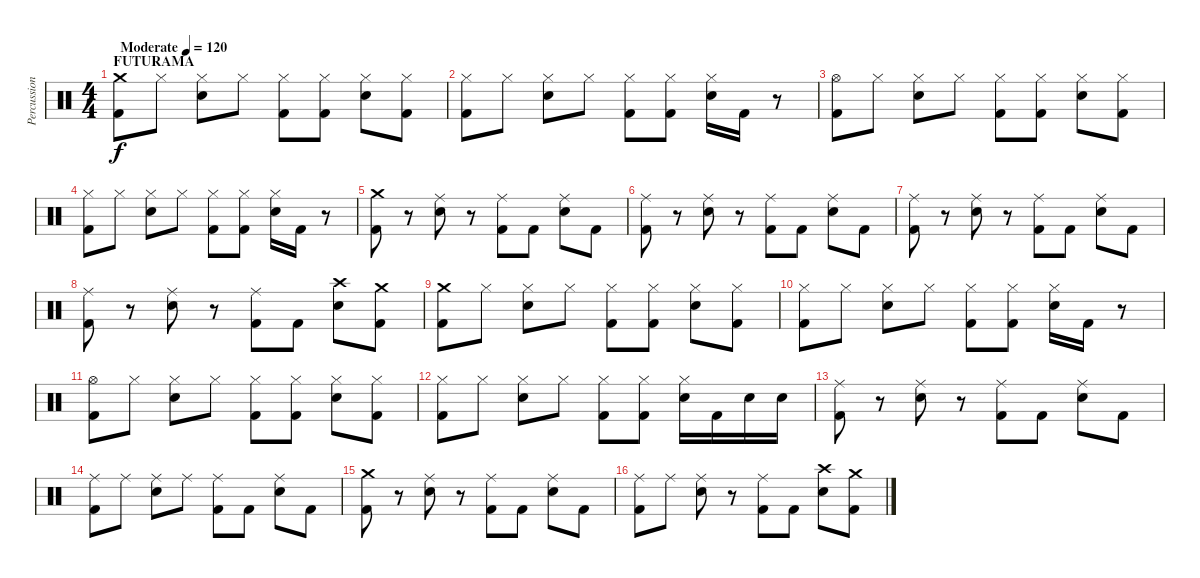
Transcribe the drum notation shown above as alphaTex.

\track ("Percussion" "Percussion") {instrument percussion}
\staff {score}
\articulation defaults
\ts (4 4)
\section ("" "FUTURAMA")
\tempo (120 "Moderate")
\clef neutral
\ks c
("Crash medium (hit)" "Kick (hit) 2").8{dy f} "Hi-Hat (closed)".8 ("Hi-Hat (closed)" "Electric Snare (hit)").8 "Hi-Hat (closed)".8 ("Hi-Hat (closed)" "Kick (hit) 2").8 ("Hi-Hat (closed)" "Kick (hit) 2").8 ("Hi-Hat (closed)" "Electric Snare (hit)").8 ("Hi-Hat (closed)" "Kick (hit) 2").8 |
("Hi-Hat (closed)" "Kick (hit) 2").8 "Hi-Hat (closed)".8 ("Hi-Hat (closed)" "Electric Snare (hit)").8 "Hi-Hat (closed)".8 ("Hi-Hat (closed)" "Kick (hit) 2").8 ("Hi-Hat (closed)" "Kick (hit) 2").8 ("Hi-Hat (closed)" "Electric Snare (hit)").16 "Kick (hit) 2".16 r.8 |
("Hi-Hat (open)" "Kick (hit) 2").8 "Hi-Hat (closed)".8 ("Hi-Hat (closed)" "Electric Snare (hit)").8 "Hi-Hat (closed)".8 ("Hi-Hat (closed)" "Kick (hit) 2").8 ("Hi-Hat (closed)" "Kick (hit) 2").8 ("Hi-Hat (closed)" "Electric Snare (hit)").8 ("Hi-Hat (closed)" "Kick (hit) 2").8 |
("Hi-Hat (closed)" "Kick (hit) 2").8 "Hi-Hat (closed)".8 ("Hi-Hat (closed)" "Electric Snare (hit)").8 "Hi-Hat (closed)".8 ("Hi-Hat (closed)" "Kick (hit) 2").8 ("Hi-Hat (closed)" "Kick (hit) 2").8 ("Hi-Hat (closed)" "Electric Snare (hit)").16 "Kick (hit) 2".16 r.8 |
("Crash medium (hit)" "Kick (hit) 2").8 r.8 ("Ride (middle)" "Electric Snare (hit)").8 r.8 ("Ride (middle)" "Kick (hit) 2").8 "Kick (hit) 2".8 ("Ride (middle)" "Electric Snare (hit)").8 "Kick (hit) 2".8 |
("Ride (middle)" "Kick (hit) 2").8 r.8 ("Ride (middle)" "Electric Snare (hit)").8 r.8 ("Ride (middle)" "Kick (hit) 2").8 "Kick (hit) 2".8 ("Ride (middle)" "Electric Snare (hit)").8 "Kick (hit) 2".8 |
("Ride (middle)" "Kick (hit) 2").8 r.8 ("Ride (middle)" "Electric Snare (hit)").8 r.8 ("Ride (middle)" "Kick (hit) 2").8 "Kick (hit) 2".8 ("Ride (middle)" "Electric Snare (hit)").8 "Kick (hit) 2".8 |
("Ride (middle)" "Kick (hit) 2").8 r.8 ("Ride (middle)" "Electric Snare (hit)").8 r.8 ("Ride (middle)" "Kick (hit) 2").8 "Kick (hit) 2".8 ("Crash high (hit)" "Electric Snare (hit)").8 ("Crash medium (hit)" "Kick (hit) 2").8 |
("Crash medium (hit)" "Kick (hit) 2").8 "Hi-Hat (closed)".8 ("Hi-Hat (closed)" "Electric Snare (hit)").8 "Hi-Hat (closed)".8 ("Hi-Hat (closed)" "Kick (hit) 2").8 ("Hi-Hat (closed)" "Kick (hit) 2").8 ("Hi-Hat (closed)" "Electric Snare (hit)").8 ("Hi-Hat (closed)" "Kick (hit) 2").8 |
("Hi-Hat (closed)" "Kick (hit) 2").8 "Hi-Hat (closed)".8 ("Hi-Hat (closed)" "Electric Snare (hit)").8 "Hi-Hat (closed)".8 ("Hi-Hat (closed)" "Kick (hit) 2").8 ("Hi-Hat (closed)" "Kick (hit) 2").8 ("Hi-Hat (closed)" "Electric Snare (hit)").16 "Kick (hit) 2".16 r.8 |
("Hi-Hat (open)" "Kick (hit) 2").8 "Hi-Hat (closed)".8 ("Hi-Hat (closed)" "Electric Snare (hit)").8 "Hi-Hat (closed)".8 ("Hi-Hat (closed)" "Kick (hit) 2").8 ("Hi-Hat (closed)" "Kick (hit) 2").8 ("Hi-Hat (closed)" "Electric Snare (hit)").8 ("Hi-Hat (closed)" "Kick (hit) 2").8 |
("Hi-Hat (closed)" "Kick (hit) 2").8 "Hi-Hat (closed)".8 ("Hi-Hat (closed)" "Electric Snare (hit)").8 "Hi-Hat (closed)".8 ("Hi-Hat (closed)" "Kick (hit) 2").8 ("Hi-Hat (closed)" "Kick (hit) 2").8 ("Hi-Hat (closed)" "Electric Snare (hit)").16 "Kick (hit) 2".16 "Electric Snare (hit)".16 "Electric Snare (hit)".16 |
("Ride (middle)" "Kick (hit) 2").8 r.8 ("Ride (middle)" "Electric Snare (hit)").8 r.8 ("Ride (middle)" "Kick (hit) 2").8 "Kick (hit) 2".8 ("Ride (middle)" "Electric Snare (hit)").8 "Kick (hit) 2".8 |
("Ride (middle)" "Kick (hit) 2").8 "Ride (middle)".8 ("Ride (middle)" "Electric Snare (hit)").8 "Ride (middle)".8 ("Ride (middle)" "Kick (hit) 2").8 "Kick (hit) 2".8 ("Ride (middle)" "Electric Snare (hit)").8 "Kick (hit) 2".8 |
("Crash medium (hit)" "Kick (hit) 2").8 r.8 ("Ride (middle)" "Electric Snare (hit)").8 r.8 ("Ride (middle)" "Kick (hit) 2").8 "Kick (hit) 2".8 ("Ride (middle)" "Electric Snare (hit)").8 "Kick (hit) 2".8 |
("Ride (middle)" "Kick (hit) 2").8 "Ride (middle)".8 ("Ride (middle)" "Electric Snare (hit)").8 r.8 ("Ride (middle)" "Kick (hit) 2").8 "Kick (hit) 2".8 ("Crash high (hit)" "Electric Snare (hit)").8 ("Crash medium (hit)" "Kick (hit) 2").8
